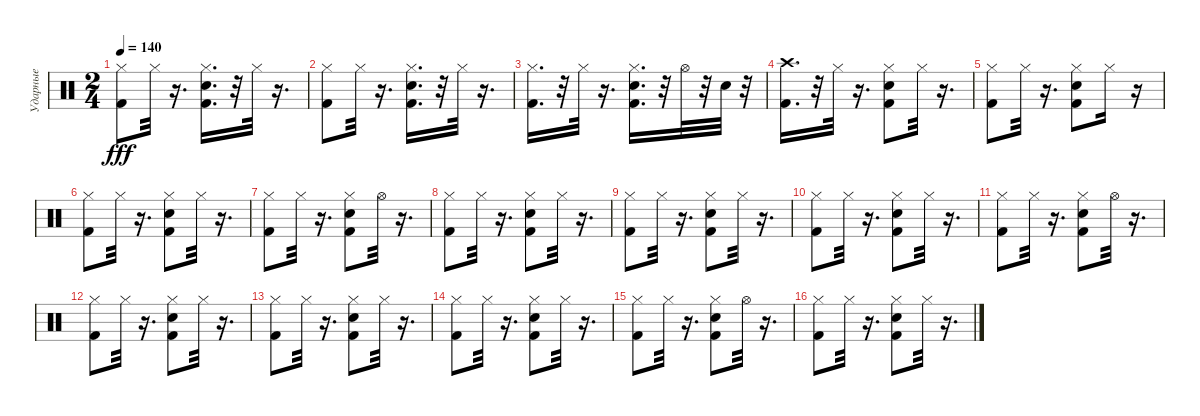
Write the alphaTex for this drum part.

\track ("Ударные" "Ударные") {instrument percussion}
\staff {score}
\articulation defaults
\ts (2 4)
\tempo 140
\clef neutral
\ks c
("Kick (hit) 2" "Hi-Hat (closed)").8{dy fff} "Hi-Hat (closed)".32 r.16{d} ("Snare (hit) 2" "Kick (hit) 2" "Hi-Hat (closed)").16{d} r.32 "Hi-Hat (closed)".32 r.16{d} |
("Kick (hit) 2" "Hi-Hat (closed)").8 "Hi-Hat (closed)".32 r.16{d} ("Snare (hit) 2" "Kick (hit) 2" "Hi-Hat (closed)").16{d} r.32 "Hi-Hat (closed)".32 r.16{d} |
("Kick (hit) 2" "Hi-Hat (closed)").16{d} r.32 "Hi-Hat (closed)".32 r.16{d} ("Kick (hit) 2" "Hi-Hat (closed)" "Snare (hit) 2").16{d} r.32 "Hi-Hat (open)".32 r.32 "Snare (hit) 2".32 r.32 |
("Kick (hit) 2" "Crash high (hit)").16{d} r.32 "Hi-Hat (closed)".32 r.16{d} ("Kick (hit) 2" "Snare (hit) 2" "Hi-Hat (closed)").8 "Hi-Hat (closed)".32 r.16{d} |
("Kick (hit) 2" "Hi-Hat (closed)").8 "Hi-Hat (closed)".32 r.16{d} ("Snare (hit) 2" "Kick (hit) 2" "Hi-Hat (closed)").8 "Hi-Hat (closed)".16 r.16 |
("Kick (hit) 2" "Hi-Hat (closed)").8 "Hi-Hat (closed)".32 r.16{d} ("Hi-Hat (closed)" "Snare (hit) 2" "Kick (hit) 2").8 "Hi-Hat (closed)".32 r.16{d} |
("Kick (hit) 2" "Hi-Hat (closed)").8 "Hi-Hat (closed)".32 r.16{d} ("Snare (hit) 2" "Hi-Hat (closed)" "Kick (hit) 2").8 "Hi-Hat (open)".32 r.16{d} |
("Kick (hit) 2" "Hi-Hat (closed)").8 "Hi-Hat (closed)".32 r.16{d} ("Kick (hit) 2" "Hi-Hat (closed)" "Snare (hit) 2").8 "Hi-Hat (closed)".32 r.16{d} |
("Kick (hit) 2" "Hi-Hat (closed)").8 "Hi-Hat (closed)".32 r.16{d} ("Kick (hit) 2" "Hi-Hat (closed)" "Snare (hit) 2").8 "Hi-Hat (closed)".32 r.16{d} |
("Kick (hit) 2" "Hi-Hat (closed)").8 "Hi-Hat (closed)".32 r.16{d} ("Snare (hit) 2" "Kick (hit) 2" "Hi-Hat (closed)").8 "Hi-Hat (closed)".32 r.16{d} |
("Kick (hit) 2" "Hi-Hat (closed)").8 "Hi-Hat (closed)".32 r.16{d} ("Snare (hit) 2" "Hi-Hat (closed)" "Kick (hit) 2").8 "Hi-Hat (open)".32 r.16{d} |
("Kick (hit) 2" "Hi-Hat (closed)").8 "Hi-Hat (closed)".32 r.16{d} ("Snare (hit) 2" "Kick (hit) 2" "Hi-Hat (closed)").8 "Hi-Hat (closed)".32 r.16{d} |
("Kick (hit) 2" "Hi-Hat (closed)").8 "Hi-Hat (closed)".32 r.16{d} ("Snare (hit) 2" "Kick (hit) 2" "Hi-Hat (closed)").8 "Hi-Hat (closed)".32 r.16{d} |
("Kick (hit) 2" "Hi-Hat (closed)").8 "Hi-Hat (closed)".32 r.16{d} ("Kick (hit) 2" "Hi-Hat (closed)" "Snare (hit) 2").8 "Hi-Hat (closed)".32 r.16{d} |
("Kick (hit) 2" "Hi-Hat (closed)").8 "Hi-Hat (closed)".32 r.16{d} ("Hi-Hat (closed)" "Snare (hit) 2" "Kick (hit) 2").8 "Hi-Hat (open)".32 r.16{d} |
("Kick (hit) 2" "Hi-Hat (closed)").8 "Hi-Hat (closed)".32 r.16{d} ("Kick (hit) 2" "Hi-Hat (closed)" "Snare (hit) 2").8 "Hi-Hat (closed)".32 r.16{d}
